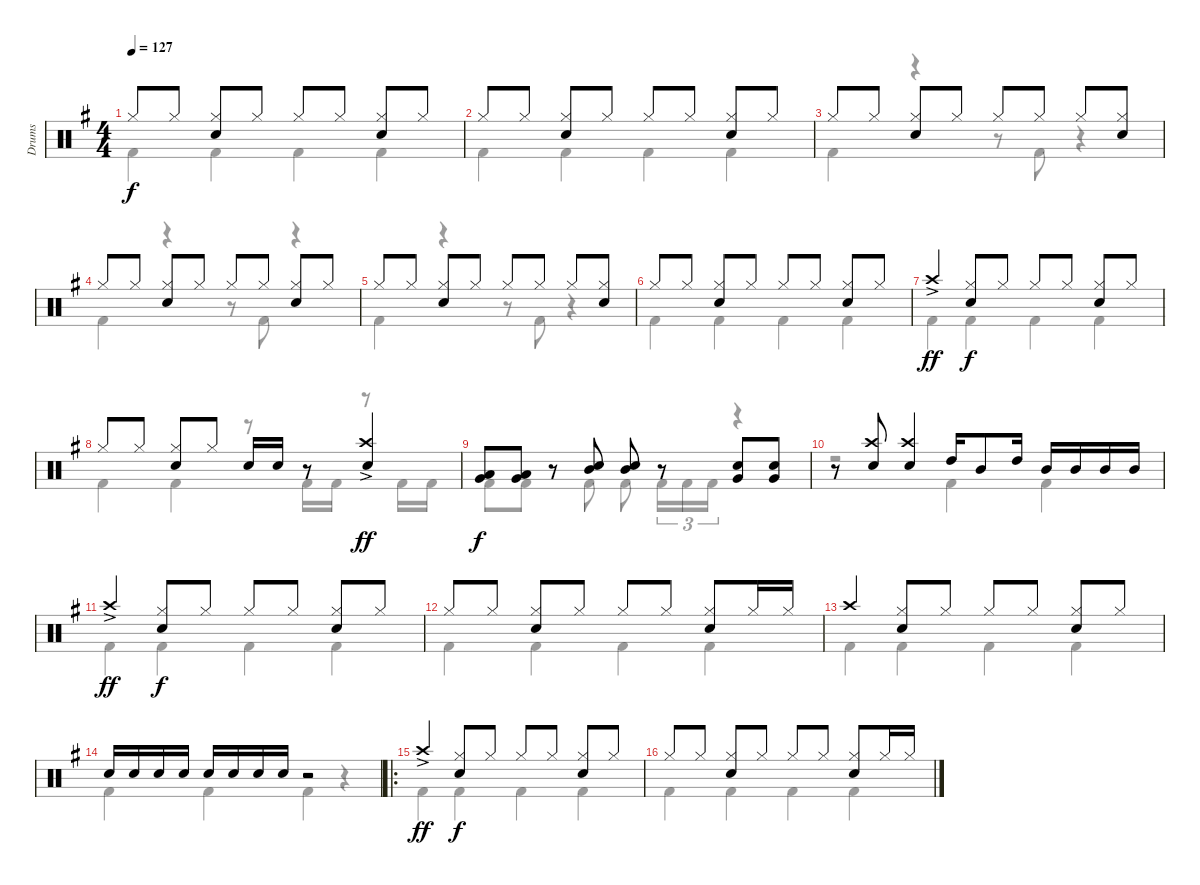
\track ("Drums" "Drums") {instrument percussion}
\staff {score}
\articulation defaults
\voice
\ts (4 4)
\tempo 127
\clef neutral
\ks g "Hi-Hat (closed)".8{dy f} "Hi-Hat (closed)".8
("Hi-Hat (closed)" "Snare (hit) 2").8 "Hi-Hat (closed)".8 "Hi-Hat (closed)".8 "Hi-Hat (closed)".8 ("Hi-Hat (closed)" "Snare (hit) 2").8 "Hi-Hat (closed)".8 |
"Hi-Hat (closed)".8 "Hi-Hat (closed)".8 ("Hi-Hat (closed)" "Snare (hit) 2").8 "Hi-Hat (closed)".8 "Hi-Hat (closed)".8 "Hi-Hat (closed)".8 ("Hi-Hat (closed)" "Snare (hit) 2").8 "Hi-Hat (closed)".8 |
"Hi-Hat (closed)".8 "Hi-Hat (closed)".8 ("Hi-Hat (closed)" "Snare (hit) 2").8 "Hi-Hat (closed)".8 "Hi-Hat (closed)".8 "Hi-Hat (closed)".8 "Hi-Hat (closed)".8 ("Hi-Hat (closed)" "Snare (hit) 2").8 |
"Hi-Hat (closed)".8 "Hi-Hat (closed)".8 ("Hi-Hat (closed)" "Snare (hit) 2").8 "Hi-Hat (closed)".8 "Hi-Hat (closed)".8 "Hi-Hat (closed)".8 ("Hi-Hat (closed)" "Snare (hit) 2").8 "Hi-Hat (closed)".8 |
"Hi-Hat (closed)".8 "Hi-Hat (closed)".8 ("Hi-Hat (closed)" "Snare (hit) 2").8 "Hi-Hat (closed)".8 "Hi-Hat (closed)".8 "Hi-Hat (closed)".8 "Hi-Hat (closed)".8 ("Hi-Hat (closed)" "Snare (hit) 2").8 |
"Hi-Hat (closed)".8 "Hi-Hat (closed)".8 ("Hi-Hat (closed)" "Snare (hit) 2").8 "Hi-Hat (closed)".8 "Hi-Hat (closed)".8 "Hi-Hat (closed)".8 ("Hi-Hat (closed)" "Snare (hit) 2").8 "Hi-Hat (closed)".8 |
"Crash high (hit)"{ac}.4{dy ff} ("Hi-Hat (closed)" "Snare (hit) 2").8{dy f} "Hi-Hat (closed)".8 "Hi-Hat (closed)".8 "Hi-Hat (closed)".8 ("Hi-Hat (closed)" "Snare (hit) 2").8 "Hi-Hat (closed)".8 |
"Hi-Hat (closed)".8 "Hi-Hat (closed)".8 ("Hi-Hat (closed)" "Snare (hit) 2").8 "Hi-Hat (closed)".8 "Snare (hit) 2".16 "Snare (hit) 2".16 r.8 ("Crash high (hit)"{ac} "Snare (hit) 2").4{dy ff} |
("Low Tom (hit)" "Very Low Tom (hit)").8{dy f} ("Low Tom (hit)" "Very Low Tom (hit)").8 r.8 ("Mid Tom (hit)" "Snare (hit) 2").8 ("Mid Tom (hit)" "Snare (hit) 2").8 r.8 ("Snare (hit) 2" "Very Low Tom (hit)").8 ("Snare (hit) 2" "Very Low Tom (hit)").8 |
r.8 ("Crash high (hit)" "Snare (hit) 2").8 ("Crash high (hit)" "Snare (hit) 2").4 "High Tom (hit)".16 "Mid Tom (hit)".8 "High Tom (hit)".16 "Mid Tom (hit)".16 "Mid Tom (hit)".16 "Mid Tom (hit)".16 "Mid Tom (hit)".16 |
"Crash high (hit)"{ac}.4{dy ff} ("Hi-Hat (closed)" "Snare (hit) 2").8{dy f} "Hi-Hat (closed)".8 "Hi-Hat (closed)".8 "Hi-Hat (closed)".8 ("Hi-Hat (closed)" "Snare (hit) 2").8 "Hi-Hat (closed)".8 |
"Hi-Hat (closed)".8 "Hi-Hat (closed)".8 ("Hi-Hat (closed)" "Snare (hit) 2").8 "Hi-Hat (closed)".8 "Hi-Hat (closed)".8 "Hi-Hat (closed)".8 ("Hi-Hat (closed)" "Snare (hit) 2").8 "Hi-Hat (closed)".16 "Hi-Hat (closed)".16 |
"Crash high (hit)".4 ("Hi-Hat (closed)" "Snare (hit) 2").8 "Hi-Hat (closed)".8 "Hi-Hat (closed)".8 "Hi-Hat (closed)".8 ("Hi-Hat (closed)" "Snare (hit) 2").8 "Hi-Hat (closed)".8 |
"Snare (hit) 2".16 "Snare (hit) 2".16 "Snare (hit) 2".16 "Snare (hit) 2".16 "Snare (hit) 2".16 "Snare (hit) 2".16 "Snare (hit) 2".16 "Snare (hit) 2".16 r.2 |
\ro "Crash high (hit)"{ac}.4{dy ff}
("Hi-Hat (closed)" "Snare (hit) 2").8{dy f} "Hi-Hat (closed)".8 "Hi-Hat (closed)".8 "Hi-Hat (closed)".8 ("Hi-Hat (closed)" "Snare (hit) 2").8 "Hi-Hat (closed)".8 |
"Hi-Hat (closed)".8 "Hi-Hat (closed)".8 ("Hi-Hat (closed)" "Snare (hit) 2").8 "Hi-Hat (closed)".8 "Hi-Hat (closed)".8 "Hi-Hat (closed)".8 ("Hi-Hat (closed)" "Snare (hit) 2").8 "Hi-Hat (closed)".16 "Hi-Hat (closed)".16
\voice
\clef neutral
\ottava regular
\simile none
\ks g "Kick (hit) 2".4{dy f} "Kick (hit) 2".4 "Kick (hit) 2".4 "Kick (hit) 2".4
|
"Kick (hit) 2".4 "Kick (hit) 2".4 "Kick (hit) 2".4 "Kick (hit) 2".4 |
"Kick (hit) 2".4 r.4 r.8 "Kick (hit) 2".8 r.4 |
"Kick (hit) 2".4 r.4 r.8 "Kick (hit) 2".8 r.4 |
"Kick (hit) 2".4 r.4 r.8 "Kick (hit) 2".8 r.4 |
"Kick (hit) 2".4 "Kick (hit) 2".4 "Kick (hit) 2".4 "Kick (hit) 2".4 |
"Kick (hit) 2".4 "Kick (hit) 2".4 "Kick (hit) 2".4 "Kick (hit) 2".4 |
"Kick (hit) 2".4 "Kick (hit) 2".4 r.8 "Kick (hit) 2".16 "Kick (hit) 2".16 r.8 "Kick (hit) 2".16 "Kick (hit) 2".16 |
"Kick (hit) 2".8 "Kick (hit) 2".8 r.8 "Kick (hit) 2".8 "Kick (hit) 2".8 "Kick (hit) 2".16{tu (3 2)} "Kick (hit) 2".16{tu (3 2)} "Kick (hit) 2".16{tu (3 2)} r.4 |
r.2 "Kick (hit) 2".4 "Kick (hit) 2".4 |
"Kick (hit) 2".4 "Kick (hit) 2".4 "Kick (hit) 2".4 "Kick (hit) 2".4 |
"Kick (hit) 2".4 "Kick (hit) 2".4 "Kick (hit) 2".4 "Kick (hit) 2".4 |
"Kick (hit) 2".4 "Kick (hit) 2".4 "Kick (hit) 2".4 "Kick (hit) 2".4 |
"Kick (hit) 2".4 "Kick (hit) 2".4 "Kick (hit) 2".4 r.4 |
"Kick (hit) 2".4 "Kick (hit) 2".4 "Kick (hit) 2".4 "Kick (hit) 2".4 |
"Kick (hit) 2".4 "Kick (hit) 2".4 "Kick (hit) 2".4 "Kick (hit) 2".4
